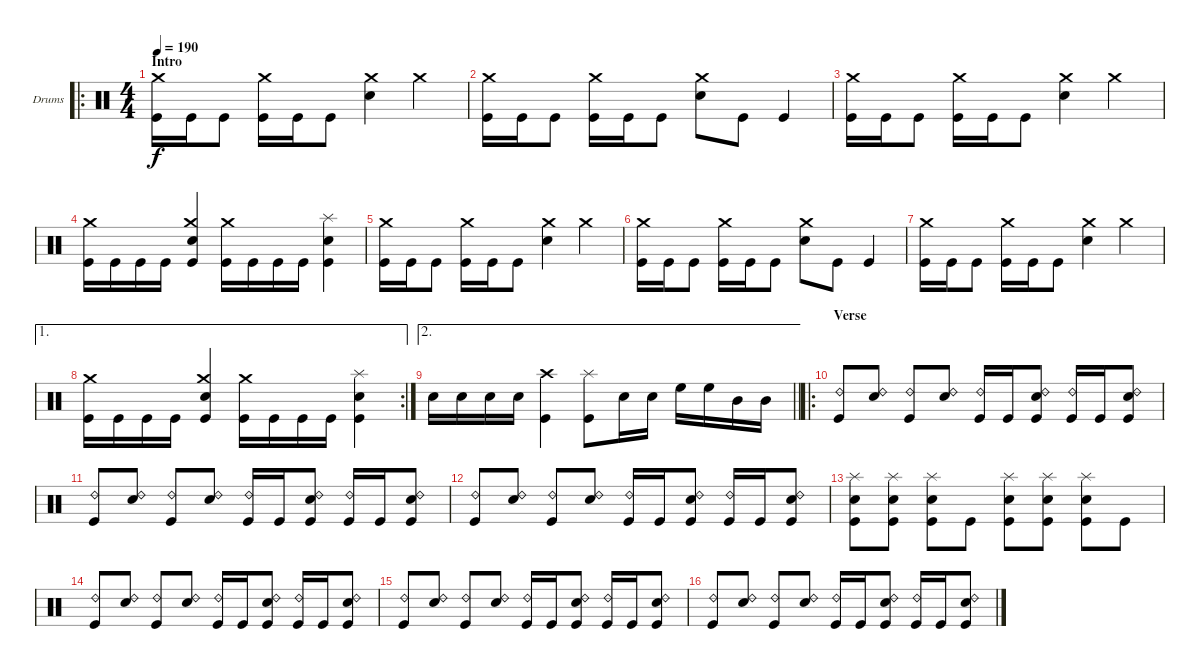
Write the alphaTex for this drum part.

\bracketExtendMode groupsimilarinstruments
\firstSystemTrackNameOrientation horizontal
\otherSystemsTrackNameOrientation horizontal
\track ("Drumkit" "Drums") {instrument percussion}
\staff {score}
\articulation defaults
\ro
\ts (4 4)
\section ("" "Intro")
\tempo 190
\clef neutral
\ks c
("Kick (hit)" "Crash medium (hit)").16{dy f} "Kick (hit)".16 "Kick (hit)".8 ("Kick (hit)" "Crash medium (hit)").16 "Kick (hit)".16 "Kick (hit)".8 ("Snare (hit) 2" "Crash medium (hit)").4 "Crash medium (hit)".4 |
("Kick (hit)" "Crash medium (hit)").16 "Kick (hit)".16 "Kick (hit)".8 ("Kick (hit)" "Crash medium (hit)").16 "Kick (hit)".16 "Kick (hit)".8 ("Snare (hit) 2" "Crash medium (hit)").8 "Kick (hit)".8 "Kick (hit)".4 |
("Kick (hit)" "Crash medium (hit)").16 "Kick (hit)".16 "Kick (hit)".8 ("Kick (hit)" "Crash medium (hit)").16 "Kick (hit)".16 "Kick (hit)".8 ("Snare (hit) 2" "Crash medium (hit)").4 "Crash medium (hit)".4 |
("Kick (hit)" "Crash medium (hit)").16 "Kick (hit)".16 "Kick (hit)".16 "Kick (hit)".16 ("Kick (hit)" "Snare (hit) 2" "Crash medium (hit)").4 ("Kick (hit)" "Crash medium (hit)").16 "Kick (hit)".16 "Kick (hit)".16 "Kick (hit)".16 ("Kick (hit)" "Snare (hit) 2" "Splash (hit)").4 |
("Kick (hit)" "Crash medium (hit)").16 "Kick (hit)".16 "Kick (hit)".8 ("Kick (hit)" "Crash medium (hit)").16 "Kick (hit)".16 "Kick (hit)".8 ("Snare (hit) 2" "Crash medium (hit)").4 "Crash medium (hit)".4 |
("Kick (hit)" "Crash medium (hit)").16 "Kick (hit)".16 "Kick (hit)".8 ("Kick (hit)" "Crash medium (hit)").16 "Kick (hit)".16 "Kick (hit)".8 ("Snare (hit) 2" "Crash medium (hit)").8 "Kick (hit)".8 "Kick (hit)".4 |
("Kick (hit)" "Crash medium (hit)").16 "Kick (hit)".16 "Kick (hit)".8 ("Kick (hit)" "Crash medium (hit)").16 "Kick (hit)".16 "Kick (hit)".8 ("Snare (hit) 2" "Crash medium (hit)").4 "Crash medium (hit)".4 |
\ae 1
\rc 2
("Kick (hit)" "Crash medium (hit)").16 "Kick (hit)".16 "Kick (hit)".16 "Kick (hit)".16 ("Kick (hit)" "Snare (hit) 2" "Crash medium (hit)").4 ("Kick (hit)" "Crash medium (hit)").16 "Kick (hit)".16 "Kick (hit)".16 "Kick (hit)".16 ("Kick (hit)" "Snare (hit) 2" "Splash (hit)").4 |
\ae 2
\barLineRight lightlight "Snare (hit) 2".16 "Snare (hit) 2".16 "Snare (hit) 2".16 "Snare (hit) 2".16
("Kick (hit)" "Crash high (hit)").4 ("Kick (hit)" "Splash (hit)").8 "Snare (hit) 2".16 "Snare (hit) 2".16 "High Floor Tom (hit)".16 "High Floor Tom (hit)".16 "Mid Tom (hit)".16 "Mid Tom (hit)".16 |
\ro
\section ("" "Verse")
("Kick (hit)" "Ride (bell) 2").8 ("Snare (hit) 2" "Ride (bell) 2").8 ("Kick (hit)" "Ride (bell) 2").8 ("Snare (hit) 2" "Ride (bell) 2").8 ("Kick (hit)" "Ride (bell) 2").16 "Kick (hit)".16 ("Kick (hit)" "Snare (hit) 2" "Ride (bell) 2").8 ("Kick (hit)" "Ride (bell) 2").16 "Kick (hit)".16 ("Kick (hit)" "Snare (hit) 2" "Ride (bell) 2").8 |
("Kick (hit)" "Ride (bell) 2").8 ("Snare (hit) 2" "Ride (bell) 2").8 ("Kick (hit)" "Ride (bell) 2").8 ("Snare (hit) 2" "Ride (bell) 2").8 ("Kick (hit)" "Ride (bell) 2").16 "Kick (hit)".16 ("Kick (hit)" "Snare (hit) 2" "Ride (bell) 2").8 ("Kick (hit)" "Ride (bell) 2").16 "Kick (hit)".16 ("Kick (hit)" "Snare (hit) 2" "Ride (bell) 2").8 |
("Kick (hit)" "Ride (bell) 2").8 ("Snare (hit) 2" "Ride (bell) 2").8 ("Kick (hit)" "Ride (bell) 2").8 ("Snare (hit) 2" "Ride (bell) 2").8 ("Kick (hit)" "Ride (bell) 2").16 "Kick (hit)".16 ("Kick (hit)" "Snare (hit) 2" "Ride (bell) 2").8 ("Kick (hit)" "Ride (bell) 2").16 "Kick (hit)".16 ("Kick (hit)" "Snare (hit) 2" "Ride (bell) 2").8 |
("Kick (hit)" "Snare (hit) 2" "Splash (hit)").8 ("Kick (hit)" "Snare (hit) 2" "Splash (hit)").8 ("Kick (hit)" "Snare (hit) 2" "Splash (hit)").8 "Kick (hit)".8 ("Kick (hit)" "Snare (hit) 2" "Splash (hit)").8 ("Kick (hit)" "Snare (hit) 2" "Splash (hit)").8 ("Kick (hit)" "Snare (hit) 2" "Splash (hit)").8 "Kick (hit)".8 |
("Kick (hit)" "Ride (bell) 2").8 ("Snare (hit) 2" "Ride (bell) 2").8 ("Kick (hit)" "Ride (bell) 2").8 ("Snare (hit) 2" "Ride (bell) 2").8 ("Kick (hit)" "Ride (bell) 2").16 "Kick (hit)".16 ("Kick (hit)" "Snare (hit) 2" "Ride (bell) 2").8 ("Kick (hit)" "Ride (bell) 2").16 "Kick (hit)".16 ("Kick (hit)" "Snare (hit) 2" "Ride (bell) 2").8 |
("Kick (hit)" "Ride (bell) 2").8 ("Snare (hit) 2" "Ride (bell) 2").8 ("Kick (hit)" "Ride (bell) 2").8 ("Snare (hit) 2" "Ride (bell) 2").8 ("Kick (hit)" "Ride (bell) 2").16 "Kick (hit)".16 ("Kick (hit)" "Snare (hit) 2" "Ride (bell) 2").8 ("Kick (hit)" "Ride (bell) 2").16 "Kick (hit)".16 ("Kick (hit)" "Snare (hit) 2" "Ride (bell) 2").8 |
("Kick (hit)" "Ride (bell) 2").8 ("Snare (hit) 2" "Ride (bell) 2").8 ("Kick (hit)" "Ride (bell) 2").8 ("Snare (hit) 2" "Ride (bell) 2").8 ("Kick (hit)" "Ride (bell) 2").16 "Kick (hit)".16 ("Kick (hit)" "Snare (hit) 2" "Ride (bell) 2").8 ("Kick (hit)" "Ride (bell) 2").16 "Kick (hit)".16 ("Kick (hit)" "Snare (hit) 2" "Ride (bell) 2").8
